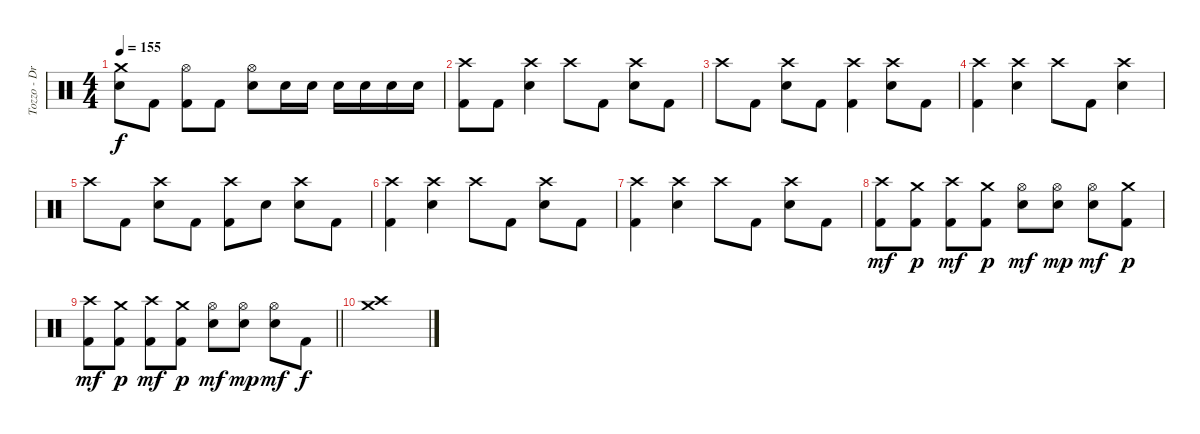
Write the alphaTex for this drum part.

\track ("Tozzo - Drums" "Tozzo - Dr") {instrument percussion}
\staff {score}
\articulation defaults
\ts (4 4)
\tempo 155
\clef neutral
\ks c
("Crash medium (hit)" "Snare (hit) 2").8{dy f} "Kick (hit) 2".8 ("Hi-Hat (open)" "Kick (hit) 2").8 "Kick (hit) 2".8 ("Hi-Hat (open)" "Snare (hit) 2").8 "Snare (hit) 2".16 "Snare (hit) 2".16 "Snare (hit) 2".16 "Snare (hit) 2".16 "Snare (hit) 2".16 "Snare (hit) 2".16 |
("Crash high (hit)" "Kick (hit) 2").8 "Kick (hit) 2".8 ("Crash high (hit)" "Snare (hit) 2").4 "Crash high (hit)".8 "Kick (hit) 2".8 ("Crash high (hit)" "Snare (hit) 2").8 "Kick (hit) 2".8 |
"Crash high (hit)".8 "Kick (hit) 2".8 ("Crash high (hit)" "Snare (hit) 2").8 "Kick (hit) 2".8 ("Crash high (hit)" "Kick (hit) 2").4 ("Crash high (hit)" "Snare (hit) 2").8 "Kick (hit) 2".8 |
("Crash high (hit)" "Kick (hit) 2").4 ("Crash high (hit)" "Snare (hit) 2").4 "Crash high (hit)".8 "Kick (hit) 2".8 ("Crash high (hit)" "Snare (hit) 2").4 |
"Crash high (hit)".8 "Kick (hit) 2".8 ("Crash high (hit)" "Snare (hit) 2").8 "Kick (hit) 2".8 ("Crash high (hit)" "Kick (hit) 2").8 "Snare (hit) 2".8 ("Crash high (hit)" "Snare (hit) 2").8 "Kick (hit) 2".8 |
("Crash high (hit)" "Kick (hit) 2").4 ("Crash high (hit)" "Snare (hit) 2").4 "Crash high (hit)".8 "Kick (hit) 2".8 ("Crash high (hit)" "Snare (hit) 2").8 "Kick (hit) 2".8 |
("Crash high (hit)" "Kick (hit) 2").4 ("Crash high (hit)" "Snare (hit) 2").4 "Crash high (hit)".8 "Kick (hit) 2".8 ("Crash high (hit)" "Snare (hit) 2").8 "Kick (hit) 2".8 |
("Crash high (hit)" "Kick (hit) 2").8{dy mf} ("Crash medium (hit)" "Kick (hit) 2").8{dy p} ("Crash high (hit)" "Kick (hit) 2").8{dy mf} ("Crash medium (hit)" "Kick (hit) 2").8{dy p} ("Hi-Hat (open)" "Snare (hit) 2").8{dy mf} ("Hi-Hat (open)" "Snare (hit) 2").8{dy mp} ("Hi-Hat (open)" "Snare (hit) 2").8{dy mf} ("Crash medium (hit)" "Kick (hit) 2").8{dy p} |
\barLineRight lightlight
("Crash high (hit)" "Kick (hit) 2").8{dy mf} ("Crash medium (hit)" "Kick (hit) 2").8{dy p} ("Crash high (hit)" "Kick (hit) 2").8{dy mf} ("Crash medium (hit)" "Kick (hit) 2").8{dy p} ("Hi-Hat (open)" "Snare (hit) 2").8{dy mf} ("Hi-Hat (open)" "Snare (hit) 2").8{dy mp} ("Hi-Hat (open)" "Snare (hit) 2").8{dy mf} "Kick (hit) 2".8{dy f} |
("Crash medium (hit)" "Crash high (hit)").1
